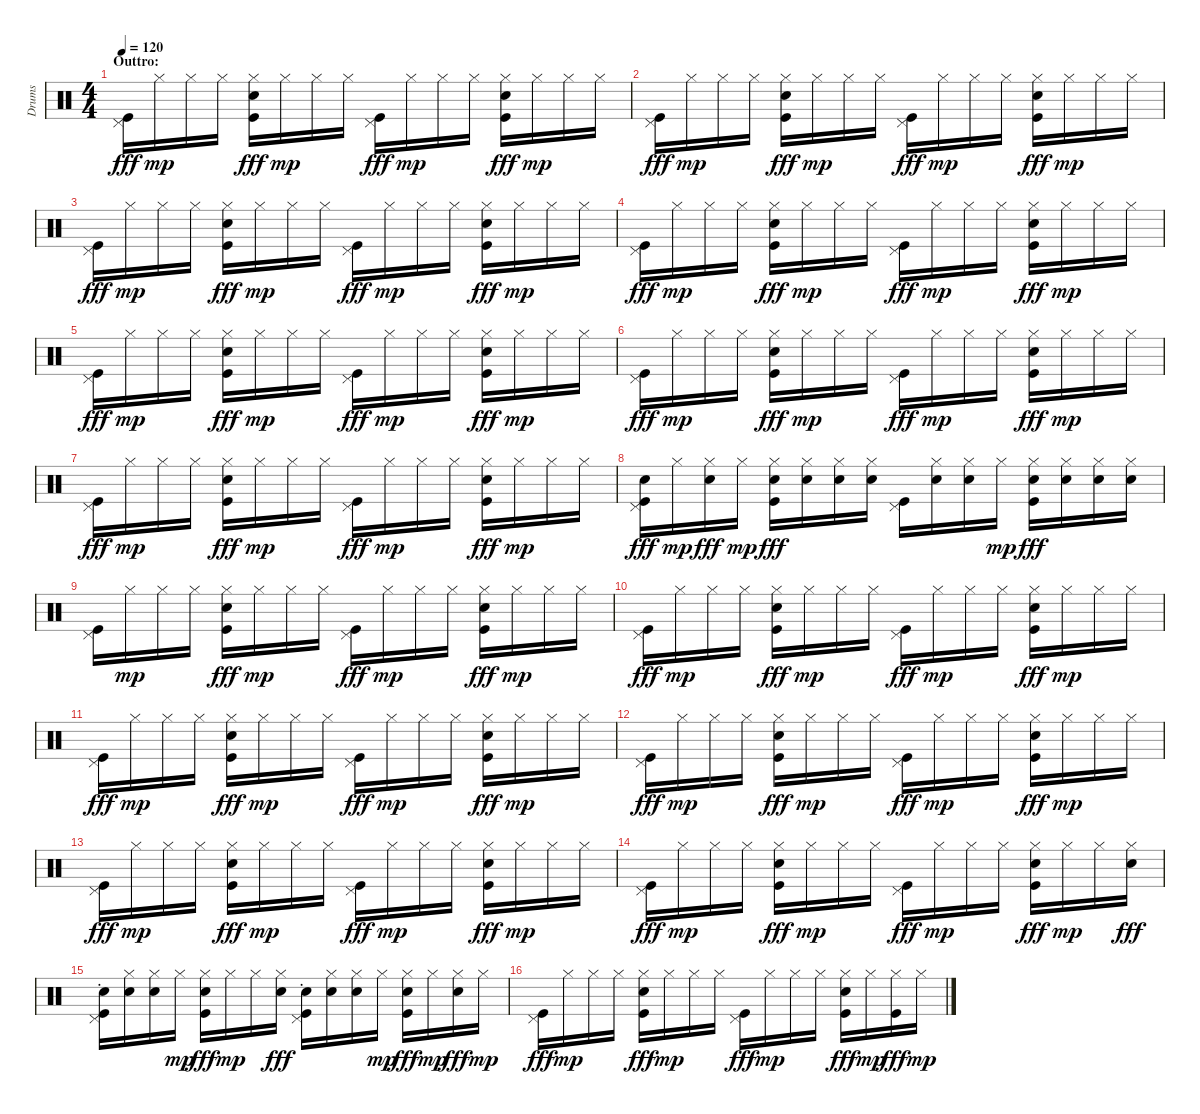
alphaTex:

\track ("Drums" "Drums") {instrument percussion}
\staff {score}
\articulation defaults
\ts (4 4)
\section ("" "Outtro:")
\tempo 120
\clef neutral
\ks c
("Pedal Hi-Hat (hit)" "Kick (hit)").16{dy fff} "Hi-Hat (closed)".16{dy mp} "Hi-Hat (closed)".16 "Hi-Hat (closed)".16 ("Hi-Hat (closed)" "Snare (hit) 2" "Kick (hit)").16{dy fff} "Hi-Hat (closed)".16{dy mp} "Hi-Hat (closed)".16 "Hi-Hat (closed)".16 ("Pedal Hi-Hat (hit)" "Kick (hit)").16{dy fff} "Hi-Hat (closed)".16{dy mp} "Hi-Hat (closed)".16 "Hi-Hat (closed)".16 ("Hi-Hat (closed)" "Snare (hit) 2" "Kick (hit)").16{dy fff} "Hi-Hat (closed)".16{dy mp} "Hi-Hat (closed)".16 "Hi-Hat (closed)".16 |
("Pedal Hi-Hat (hit)" "Kick (hit)").16{dy fff} "Hi-Hat (closed)".16{dy mp} "Hi-Hat (closed)".16 "Hi-Hat (closed)".16 ("Hi-Hat (closed)" "Snare (hit) 2" "Kick (hit)").16{dy fff} "Hi-Hat (closed)".16{dy mp} "Hi-Hat (closed)".16 "Hi-Hat (closed)".16 ("Pedal Hi-Hat (hit)" "Kick (hit)").16{dy fff} "Hi-Hat (closed)".16{dy mp} "Hi-Hat (closed)".16 "Hi-Hat (closed)".16 ("Hi-Hat (closed)" "Snare (hit) 2" "Kick (hit)").16{dy fff} "Hi-Hat (closed)".16{dy mp} "Hi-Hat (closed)".16 "Hi-Hat (closed)".16 |
("Pedal Hi-Hat (hit)" "Kick (hit)").16{dy fff} "Hi-Hat (closed)".16{dy mp} "Hi-Hat (closed)".16 "Hi-Hat (closed)".16 ("Hi-Hat (closed)" "Snare (hit) 2" "Kick (hit)").16{dy fff} "Hi-Hat (closed)".16{dy mp} "Hi-Hat (closed)".16 "Hi-Hat (closed)".16 ("Pedal Hi-Hat (hit)" "Kick (hit)").16{dy fff} "Hi-Hat (closed)".16{dy mp} "Hi-Hat (closed)".16 "Hi-Hat (closed)".16 ("Hi-Hat (closed)" "Snare (hit) 2" "Kick (hit)").16{dy fff} "Hi-Hat (closed)".16{dy mp} "Hi-Hat (closed)".16 "Hi-Hat (closed)".16 |
("Pedal Hi-Hat (hit)" "Kick (hit)").16{dy fff} "Hi-Hat (closed)".16{dy mp} "Hi-Hat (closed)".16 "Hi-Hat (closed)".16 ("Hi-Hat (closed)" "Snare (hit) 2" "Kick (hit)").16{dy fff} "Hi-Hat (closed)".16{dy mp} "Hi-Hat (closed)".16 "Hi-Hat (closed)".16 ("Pedal Hi-Hat (hit)" "Kick (hit)").16{dy fff} "Hi-Hat (closed)".16{dy mp} "Hi-Hat (closed)".16 "Hi-Hat (closed)".16 ("Hi-Hat (closed)" "Snare (hit) 2" "Kick (hit)").16{dy fff} "Hi-Hat (closed)".16{dy mp} "Hi-Hat (closed)".16 "Hi-Hat (closed)".16 |
("Pedal Hi-Hat (hit)" "Kick (hit)").16{dy fff} "Hi-Hat (closed)".16{dy mp} "Hi-Hat (closed)".16 "Hi-Hat (closed)".16 ("Hi-Hat (closed)" "Snare (hit) 2" "Kick (hit)").16{dy fff} "Hi-Hat (closed)".16{dy mp} "Hi-Hat (closed)".16 "Hi-Hat (closed)".16 ("Pedal Hi-Hat (hit)" "Kick (hit)").16{dy fff} "Hi-Hat (closed)".16{dy mp} "Hi-Hat (closed)".16 "Hi-Hat (closed)".16 ("Hi-Hat (closed)" "Snare (hit) 2" "Kick (hit)").16{dy fff} "Hi-Hat (closed)".16{dy mp} "Hi-Hat (closed)".16 "Hi-Hat (closed)".16 |
("Pedal Hi-Hat (hit)" "Kick (hit)").16{dy fff} "Hi-Hat (closed)".16{dy mp} "Hi-Hat (closed)".16 "Hi-Hat (closed)".16 ("Hi-Hat (closed)" "Snare (hit) 2" "Kick (hit)").16{dy fff} "Hi-Hat (closed)".16{dy mp} "Hi-Hat (closed)".16 "Hi-Hat (closed)".16 ("Pedal Hi-Hat (hit)" "Kick (hit)").16{dy fff} "Hi-Hat (closed)".16{dy mp} "Hi-Hat (closed)".16 "Hi-Hat (closed)".16 ("Hi-Hat (closed)" "Snare (hit) 2" "Kick (hit)").16{dy fff} "Hi-Hat (closed)".16{dy mp} "Hi-Hat (closed)".16 "Hi-Hat (closed)".16 |
("Pedal Hi-Hat (hit)" "Kick (hit)").16{dy fff} "Hi-Hat (closed)".16{dy mp} "Hi-Hat (closed)".16 "Hi-Hat (closed)".16 ("Hi-Hat (closed)" "Snare (hit) 2" "Kick (hit)").16{dy fff} "Hi-Hat (closed)".16{dy mp} "Hi-Hat (closed)".16 "Hi-Hat (closed)".16 ("Pedal Hi-Hat (hit)" "Kick (hit)").16{dy fff} "Hi-Hat (closed)".16{dy mp} "Hi-Hat (closed)".16 "Hi-Hat (closed)".16 ("Hi-Hat (closed)" "Snare (hit) 2" "Kick (hit)").16{dy fff} "Hi-Hat (closed)".16{dy mp} "Hi-Hat (closed)".16 "Hi-Hat (closed)".16 |
("Pedal Hi-Hat (hit)" "Snare (hit) 2" "Kick (hit)").16{dy fff} "Hi-Hat (closed)".16{dy mp} ("Hi-Hat (closed)" "Snare (hit) 2").16{dy fff} "Hi-Hat (closed)".16{dy mp} ("Hi-Hat (closed)" "Snare (hit) 2" "Kick (hit)").16{dy fff} ("Hi-Hat (closed)" "Snare (hit) 2").16 ("Hi-Hat (closed)" "Snare (hit) 2").16 ("Hi-Hat (closed)" "Snare (hit) 2").16 ("Pedal Hi-Hat (hit)" "Kick (hit)").16 ("Hi-Hat (closed)" "Snare (hit) 2").16 ("Hi-Hat (closed)" "Snare (hit) 2").16 "Hi-Hat (closed)".16{dy mp} ("Hi-Hat (closed)" "Snare (hit) 2" "Kick (hit)").16{dy fff} ("Hi-Hat (closed)" "Snare (hit) 2").16 ("Hi-Hat (closed)" "Snare (hit) 2").16 ("Hi-Hat (closed)" "Snare (hit) 2").16 |
("Pedal Hi-Hat (hit)" "Kick (hit)").16 "Hi-Hat (closed)".16{dy mp} "Hi-Hat (closed)".16 "Hi-Hat (closed)".16 ("Hi-Hat (closed)" "Snare (hit) 2" "Kick (hit)").16{dy fff} "Hi-Hat (closed)".16{dy mp} "Hi-Hat (closed)".16 "Hi-Hat (closed)".16 ("Pedal Hi-Hat (hit)" "Kick (hit)").16{dy fff} "Hi-Hat (closed)".16{dy mp} "Hi-Hat (closed)".16 "Hi-Hat (closed)".16 ("Hi-Hat (closed)" "Snare (hit) 2" "Kick (hit)").16{dy fff} "Hi-Hat (closed)".16{dy mp} "Hi-Hat (closed)".16 "Hi-Hat (closed)".16 |
("Pedal Hi-Hat (hit)" "Kick (hit)").16{dy fff} "Hi-Hat (closed)".16{dy mp} "Hi-Hat (closed)".16 "Hi-Hat (closed)".16 ("Hi-Hat (closed)" "Snare (hit) 2" "Kick (hit)").16{dy fff} "Hi-Hat (closed)".16{dy mp} "Hi-Hat (closed)".16 "Hi-Hat (closed)".16 ("Pedal Hi-Hat (hit)" "Kick (hit)").16{dy fff} "Hi-Hat (closed)".16{dy mp} "Hi-Hat (closed)".16 "Hi-Hat (closed)".16 ("Hi-Hat (closed)" "Snare (hit) 2" "Kick (hit)").16{dy fff} "Hi-Hat (closed)".16{dy mp} "Hi-Hat (closed)".16 "Hi-Hat (closed)".16 |
("Pedal Hi-Hat (hit)" "Kick (hit)").16{dy fff} "Hi-Hat (closed)".16{dy mp} "Hi-Hat (closed)".16 "Hi-Hat (closed)".16 ("Hi-Hat (closed)" "Snare (hit) 2" "Kick (hit)").16{dy fff} "Hi-Hat (closed)".16{dy mp} "Hi-Hat (closed)".16 "Hi-Hat (closed)".16 ("Pedal Hi-Hat (hit)" "Kick (hit)").16{dy fff} "Hi-Hat (closed)".16{dy mp} "Hi-Hat (closed)".16 "Hi-Hat (closed)".16 ("Hi-Hat (closed)" "Snare (hit) 2" "Kick (hit)").16{dy fff} "Hi-Hat (closed)".16{dy mp} "Hi-Hat (closed)".16 "Hi-Hat (closed)".16 |
("Pedal Hi-Hat (hit)" "Kick (hit)").16{dy fff} "Hi-Hat (closed)".16{dy mp} "Hi-Hat (closed)".16 "Hi-Hat (closed)".16 ("Hi-Hat (closed)" "Snare (hit) 2" "Kick (hit)").16{dy fff} "Hi-Hat (closed)".16{dy mp} "Hi-Hat (closed)".16 "Hi-Hat (closed)".16 ("Pedal Hi-Hat (hit)" "Kick (hit)").16{dy fff} "Hi-Hat (closed)".16{dy mp} "Hi-Hat (closed)".16 "Hi-Hat (closed)".16 ("Hi-Hat (closed)" "Snare (hit) 2" "Kick (hit)").16{dy fff} "Hi-Hat (closed)".16{dy mp} "Hi-Hat (closed)".16 "Hi-Hat (closed)".16 |
("Pedal Hi-Hat (hit)" "Kick (hit)").16{dy fff} "Hi-Hat (closed)".16{dy mp} "Hi-Hat (closed)".16 "Hi-Hat (closed)".16 ("Hi-Hat (closed)" "Snare (hit) 2" "Kick (hit)").16{dy fff} "Hi-Hat (closed)".16{dy mp} "Hi-Hat (closed)".16 "Hi-Hat (closed)".16 ("Pedal Hi-Hat (hit)" "Kick (hit)").16{dy fff} "Hi-Hat (closed)".16{dy mp} "Hi-Hat (closed)".16 "Hi-Hat (closed)".16 ("Hi-Hat (closed)" "Snare (hit) 2" "Kick (hit)").16{dy fff} "Hi-Hat (closed)".16{dy mp} "Hi-Hat (closed)".16 "Hi-Hat (closed)".16 |
("Pedal Hi-Hat (hit)" "Kick (hit)").16{dy fff} "Hi-Hat (closed)".16{dy mp} "Hi-Hat (closed)".16 "Hi-Hat (closed)".16 ("Hi-Hat (closed)" "Snare (hit) 2" "Kick (hit)").16{dy fff} "Hi-Hat (closed)".16{dy mp} "Hi-Hat (closed)".16 "Hi-Hat (closed)".16 ("Pedal Hi-Hat (hit)" "Kick (hit)").16{dy fff} "Hi-Hat (closed)".16{dy mp} "Hi-Hat (closed)".16 "Hi-Hat (closed)".16 ("Hi-Hat (closed)" "Snare (hit) 2" "Kick (hit)").16{dy fff} "Hi-Hat (closed)".16{dy mp} "Hi-Hat (closed)".16 ("Hi-Hat (closed)" "Snare (hit) 2").16{dy fff} |
("Pedal Hi-Hat (hit)" "Snare (hit) 2"{st} "Kick (hit)").16 ("Hi-Hat (closed)" "Snare (hit) 2").16 ("Hi-Hat (closed)" "Snare (hit) 2").16 "Hi-Hat (closed)".16{dy mp} ("Hi-Hat (closed)" "Snare (hit) 2" "Kick (hit)").16{dy fff} "Hi-Hat (closed)".16{dy mp} "Hi-Hat (closed)".16 ("Hi-Hat (closed)" "Snare (hit) 2").16{dy fff} ("Pedal Hi-Hat (hit)" "Snare (hit) 2"{st} "Kick (hit)").16 ("Hi-Hat (closed)" "Snare (hit) 2").16 ("Hi-Hat (closed)" "Snare (hit) 2").16 "Hi-Hat (closed)".16{dy mp} ("Hi-Hat (closed)" "Snare (hit) 2" "Kick (hit)").16{dy fff} "Hi-Hat (closed)".16{dy mp} ("Hi-Hat (closed)" "Snare (hit) 2").16{dy fff} "Hi-Hat (closed)".16{dy mp} |
("Pedal Hi-Hat (hit)" "Kick (hit)").16{dy fff} "Hi-Hat (closed)".16{dy mp} "Hi-Hat (closed)".16 "Hi-Hat (closed)".16 ("Hi-Hat (closed)" "Snare (hit) 2" "Kick (hit)").16{dy fff} "Hi-Hat (closed)".16{dy mp} "Hi-Hat (closed)".16 "Hi-Hat (closed)".16 ("Pedal Hi-Hat (hit)" "Kick (hit)").16{dy fff} "Hi-Hat (closed)".16{dy mp} "Hi-Hat (closed)".16 "Hi-Hat (closed)".16 ("Hi-Hat (closed)" "Snare (hit) 2" "Kick (hit)").16{dy fff} "Hi-Hat (closed)".16{dy mp} ("Hi-Hat (closed)" "Kick (hit)").16{dy fff} "Hi-Hat (closed)".16{dy mp}
